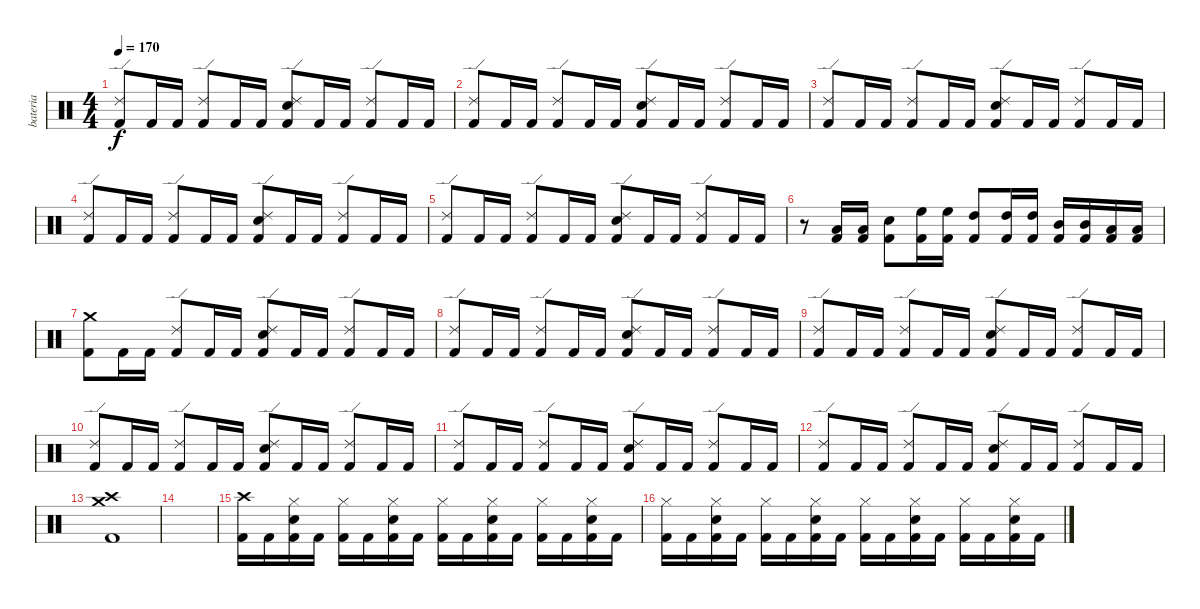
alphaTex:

\track ("bateria" "bateria") {instrument percussion}
\staff {score}
\articulation defaults
\ts (4 4)
\tempo 170
\clef neutral
\ks c
("Ride (edge) 2" "Kick (hit) 2").8{dy f} "Kick (hit) 2".16 "Kick (hit) 2".16 ("Ride (edge) 2" "Kick (hit) 2").8 "Kick (hit) 2".16 "Kick (hit) 2".16 ("Ride (edge) 2" "Snare (hit) 2" "Kick (hit) 2").8 "Kick (hit) 2".16 "Kick (hit) 2".16 ("Ride (edge) 2" "Kick (hit) 2").8 "Kick (hit) 2".16 "Kick (hit) 2".16 |
("Ride (edge) 2" "Kick (hit) 2").8 "Kick (hit) 2".16 "Kick (hit) 2".16 ("Ride (edge) 2" "Kick (hit) 2").8 "Kick (hit) 2".16 "Kick (hit) 2".16 ("Ride (edge) 2" "Snare (hit) 2" "Kick (hit) 2").8 "Kick (hit) 2".16 "Kick (hit) 2".16 ("Ride (edge) 2" "Kick (hit) 2").8 "Kick (hit) 2".16 "Kick (hit) 2".16 |
("Ride (edge) 2" "Kick (hit) 2").8 "Kick (hit) 2".16 "Kick (hit) 2".16 ("Ride (edge) 2" "Kick (hit) 2").8 "Kick (hit) 2".16 "Kick (hit) 2".16 ("Ride (edge) 2" "Snare (hit) 2" "Kick (hit) 2").8 "Kick (hit) 2".16 "Kick (hit) 2".16 ("Ride (edge) 2" "Kick (hit) 2").8 "Kick (hit) 2".16 "Kick (hit) 2".16 |
("Ride (edge) 2" "Kick (hit) 2").8 "Kick (hit) 2".16 "Kick (hit) 2".16 ("Ride (edge) 2" "Kick (hit) 2").8 "Kick (hit) 2".16 "Kick (hit) 2".16 ("Ride (edge) 2" "Snare (hit) 2" "Kick (hit) 2").8 "Kick (hit) 2".16 "Kick (hit) 2".16 ("Ride (edge) 2" "Kick (hit) 2").8 "Kick (hit) 2".16 "Kick (hit) 2".16 |
("Ride (edge) 2" "Kick (hit) 2").8 "Kick (hit) 2".16 "Kick (hit) 2".16 ("Ride (edge) 2" "Kick (hit) 2").8 "Kick (hit) 2".16 "Kick (hit) 2".16 ("Ride (edge) 2" "Snare (hit) 2" "Kick (hit) 2").8 "Kick (hit) 2".16 "Kick (hit) 2".16 ("Ride (edge) 2" "Kick (hit) 2").8 "Kick (hit) 2".16 "Kick (hit) 2".16 |
r.8 ("Low Tom (hit)" "Kick (hit) 2").16 ("Low Tom (hit)" "Kick (hit) 2").16 ("Snare (hit) 2" "Kick (hit) 2").8 ("High Floor Tom (hit)" "Kick (hit) 2").16 ("High Floor Tom (hit)" "Kick (hit) 2").16 ("High Tom (hit)" "Kick (hit) 2").8 ("High Tom (hit)" "Kick (hit) 2").16 ("High Tom (hit)" "Kick (hit) 2").16 ("Mid Tom (hit)" "Kick (hit) 2").16 ("Mid Tom (hit)" "Kick (hit) 2").16 ("Low Tom (hit)" "Kick (hit) 2").16 ("Low Tom (hit)" "Kick (hit) 2").16 |
("Crash medium (hit)" "Kick (hit) 2").8 "Kick (hit) 2".16 "Kick (hit) 2".16 ("Ride (edge) 2" "Kick (hit) 2").8 "Kick (hit) 2".16 "Kick (hit) 2".16 ("Ride (edge) 2" "Snare (hit) 2" "Kick (hit) 2").8 "Kick (hit) 2".16 "Kick (hit) 2".16 ("Ride (edge) 2" "Kick (hit) 2").8 "Kick (hit) 2".16 "Kick (hit) 2".16 |
("Ride (edge) 2" "Kick (hit) 2").8 "Kick (hit) 2".16 "Kick (hit) 2".16 ("Ride (edge) 2" "Kick (hit) 2").8 "Kick (hit) 2".16 "Kick (hit) 2".16 ("Ride (edge) 2" "Snare (hit) 2" "Kick (hit) 2").8 "Kick (hit) 2".16 "Kick (hit) 2".16 ("Ride (edge) 2" "Kick (hit) 2").8 "Kick (hit) 2".16 "Kick (hit) 2".16 |
("Ride (edge) 2" "Kick (hit) 2").8 "Kick (hit) 2".16 "Kick (hit) 2".16 ("Ride (edge) 2" "Kick (hit) 2").8 "Kick (hit) 2".16 "Kick (hit) 2".16 ("Ride (edge) 2" "Snare (hit) 2" "Kick (hit) 2").8 "Kick (hit) 2".16 "Kick (hit) 2".16 ("Ride (edge) 2" "Kick (hit) 2").8 "Kick (hit) 2".16 "Kick (hit) 2".16 |
("Ride (edge) 2" "Kick (hit) 2").8 "Kick (hit) 2".16 "Kick (hit) 2".16 ("Ride (edge) 2" "Kick (hit) 2").8 "Kick (hit) 2".16 "Kick (hit) 2".16 ("Ride (edge) 2" "Snare (hit) 2" "Kick (hit) 2").8 "Kick (hit) 2".16 "Kick (hit) 2".16 ("Ride (edge) 2" "Kick (hit) 2").8 "Kick (hit) 2".16 "Kick (hit) 2".16 |
("Ride (edge) 2" "Kick (hit) 2").8 "Kick (hit) 2".16 "Kick (hit) 2".16 ("Ride (edge) 2" "Kick (hit) 2").8 "Kick (hit) 2".16 "Kick (hit) 2".16 ("Ride (edge) 2" "Snare (hit) 2" "Kick (hit) 2").8 "Kick (hit) 2".16 "Kick (hit) 2".16 ("Ride (edge) 2" "Kick (hit) 2").8 "Kick (hit) 2".16 "Kick (hit) 2".16 |
("Ride (edge) 2" "Kick (hit) 2").8 "Kick (hit) 2".16 "Kick (hit) 2".16 ("Ride (edge) 2" "Kick (hit) 2").8 "Kick (hit) 2".16 "Kick (hit) 2".16 ("Ride (edge) 2" "Snare (hit) 2" "Kick (hit) 2").8 "Kick (hit) 2".16 "Kick (hit) 2".16 ("Ride (edge) 2" "Kick (hit) 2").8 "Kick (hit) 2".16 "Kick (hit) 2".16 |
("Crash high (hit)" "Crash medium (hit)" "Kick (hit) 2").1 |
|
("Crash high (hit)" "Kick (hit) 2").16 "Kick (hit) 2".16 ("Hi-Hat (closed)" "Snare (hit) 2" "Kick (hit) 2").16 "Kick (hit) 2".16 ("Hi-Hat (closed)" "Kick (hit) 2").16 "Kick (hit) 2".16 ("Hi-Hat (closed)" "Snare (hit) 2" "Kick (hit) 2").16 "Kick (hit) 2".16 ("Hi-Hat (closed)" "Kick (hit) 2").16 "Kick (hit) 2".16 ("Hi-Hat (closed)" "Snare (hit) 2" "Kick (hit) 2").16 "Kick (hit) 2".16 ("Hi-Hat (closed)" "Kick (hit) 2").16 "Kick (hit) 2".16 ("Hi-Hat (closed)" "Snare (hit) 2" "Kick (hit) 2").16 "Kick (hit) 2".16 |
("Hi-Hat (closed)" "Kick (hit) 2").16 "Kick (hit) 2".16 ("Hi-Hat (closed)" "Snare (hit) 2" "Kick (hit) 2").16 "Kick (hit) 2".16 ("Hi-Hat (closed)" "Kick (hit) 2").16 "Kick (hit) 2".16 ("Hi-Hat (closed)" "Snare (hit) 2" "Kick (hit) 2").16 "Kick (hit) 2".16 ("Hi-Hat (closed)" "Kick (hit) 2").16 "Kick (hit) 2".16 ("Hi-Hat (closed)" "Snare (hit) 2" "Kick (hit) 2").16 "Kick (hit) 2".16 ("Hi-Hat (closed)" "Kick (hit) 2").16 "Kick (hit) 2".16 ("Hi-Hat (closed)" "Snare (hit) 2" "Kick (hit) 2").16 "Kick (hit) 2".16
